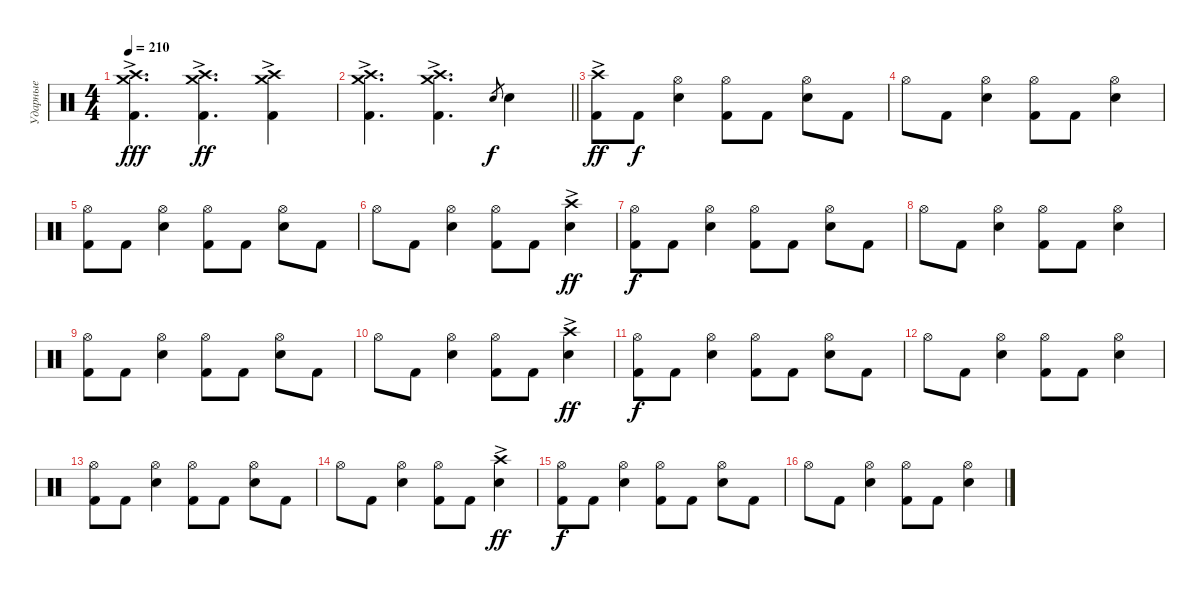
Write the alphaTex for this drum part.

\track ("Ударные" "Ударные") {instrument percussion}
\staff {score}
\articulation defaults
\ts (4 4)
\tempo 210
\clef neutral
\ks c
("Crash medium (hit)" "Crash high (hit)"{ac} "Kick (hit) 2").4{d dy fff} ("Crash medium (hit)" "Crash high (hit)"{ac} "Kick (hit) 2").4{d dy ff} ("Crash medium (hit)" "Crash high (hit)"{ac} "Kick (hit) 2").4 |
\barLineRight lightlight
("Crash medium (hit)" "Crash high (hit)"{ac} "Kick (hit) 2").4{d} ("Crash medium (hit)" "Crash high (hit)"{ac} "Kick (hit) 2").4{d} "Snare (hit) 2".8{gr dy f} "Snare (hit) 2".4 |
\section ("" "")
("Crash high (hit)"{ac} "Kick (hit) 2").8{dy ff} "Kick (hit) 2".8{dy f} ("Hi-Hat (open)" "Snare (hit) 2").4 ("Hi-Hat (open)" "Kick (hit) 2").8 "Kick (hit) 2".8 ("Hi-Hat (open)" "Snare (hit) 2").8 "Kick (hit) 2".8 |
"Hi-Hat (open)".8 "Kick (hit) 2".8 ("Hi-Hat (open)" "Snare (hit) 2").4 ("Hi-Hat (open)" "Kick (hit) 2").8 "Kick (hit) 2".8 ("Hi-Hat (open)" "Snare (hit) 2").4 |
("Hi-Hat (open)" "Kick (hit) 2").8 "Kick (hit) 2".8 ("Hi-Hat (open)" "Snare (hit) 2").4 ("Hi-Hat (open)" "Kick (hit) 2").8 "Kick (hit) 2".8 ("Hi-Hat (open)" "Snare (hit) 2").8 "Kick (hit) 2".8 |
"Hi-Hat (open)".8 "Kick (hit) 2".8 ("Hi-Hat (open)" "Snare (hit) 2").4 ("Hi-Hat (open)" "Kick (hit) 2").8 "Kick (hit) 2".8 ("Crash high (hit)"{ac} "Snare (hit) 2").4{dy ff} |
("Hi-Hat (open)" "Kick (hit) 2").8{dy f} "Kick (hit) 2".8 ("Hi-Hat (open)" "Snare (hit) 2").4 ("Hi-Hat (open)" "Kick (hit) 2").8 "Kick (hit) 2".8 ("Hi-Hat (open)" "Snare (hit) 2").8 "Kick (hit) 2".8 |
"Hi-Hat (open)".8 "Kick (hit) 2".8 ("Hi-Hat (open)" "Snare (hit) 2").4 ("Hi-Hat (open)" "Kick (hit) 2").8 "Kick (hit) 2".8 ("Hi-Hat (open)" "Snare (hit) 2").4 |
("Hi-Hat (open)" "Kick (hit) 2").8 "Kick (hit) 2".8 ("Hi-Hat (open)" "Snare (hit) 2").4 ("Hi-Hat (open)" "Kick (hit) 2").8 "Kick (hit) 2".8 ("Hi-Hat (open)" "Snare (hit) 2").8 "Kick (hit) 2".8 |
"Hi-Hat (open)".8 "Kick (hit) 2".8 ("Hi-Hat (open)" "Snare (hit) 2").4 ("Hi-Hat (open)" "Kick (hit) 2").8 "Kick (hit) 2".8 ("Crash high (hit)"{ac} "Snare (hit) 2").4{dy ff} |
("Hi-Hat (open)" "Kick (hit) 2").8{dy f} "Kick (hit) 2".8 ("Hi-Hat (open)" "Snare (hit) 2").4 ("Hi-Hat (open)" "Kick (hit) 2").8 "Kick (hit) 2".8 ("Hi-Hat (open)" "Snare (hit) 2").8 "Kick (hit) 2".8 |
"Hi-Hat (open)".8 "Kick (hit) 2".8 ("Hi-Hat (open)" "Snare (hit) 2").4 ("Hi-Hat (open)" "Kick (hit) 2").8 "Kick (hit) 2".8 ("Hi-Hat (open)" "Snare (hit) 2").4 |
("Hi-Hat (open)" "Kick (hit) 2").8 "Kick (hit) 2".8 ("Hi-Hat (open)" "Snare (hit) 2").4 ("Hi-Hat (open)" "Kick (hit) 2").8 "Kick (hit) 2".8 ("Hi-Hat (open)" "Snare (hit) 2").8 "Kick (hit) 2".8 |
"Hi-Hat (open)".8 "Kick (hit) 2".8 ("Hi-Hat (open)" "Snare (hit) 2").4 ("Hi-Hat (open)" "Kick (hit) 2").8 "Kick (hit) 2".8 ("Crash high (hit)"{ac} "Snare (hit) 2").4{dy ff} |
("Hi-Hat (open)" "Kick (hit) 2").8{dy f} "Kick (hit) 2".8 ("Hi-Hat (open)" "Snare (hit) 2").4 ("Hi-Hat (open)" "Kick (hit) 2").8 "Kick (hit) 2".8 ("Hi-Hat (open)" "Snare (hit) 2").8 "Kick (hit) 2".8 |
"Hi-Hat (open)".8 "Kick (hit) 2".8 ("Hi-Hat (open)" "Snare (hit) 2").4 ("Hi-Hat (open)" "Kick (hit) 2").8 "Kick (hit) 2".8 ("Hi-Hat (open)" "Snare (hit) 2").4
